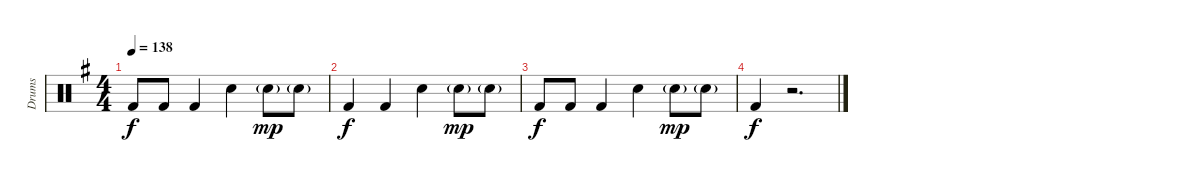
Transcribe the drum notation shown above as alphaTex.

\track ("Drums" "Drums") {instrument percussion}
\staff {score}
\articulation defaults
\ts (4 4)
\tempo 138
\clef neutral
\ks g "Kick (hit) 2".8{dy f} "Kick (hit) 2".8 "Kick (hit) 2".4 "Snare (hit) 2".4 "Snare (hit) 2"{g}.8{dy mp} "Snare (hit) 2"{g}.8
|
"Kick (hit) 2".4{dy f} "Kick (hit) 2".4 "Snare (hit) 2".4 "Snare (hit) 2"{g}.8{dy mp} "Snare (hit) 2"{g}.8 |
"Kick (hit) 2".8{dy f} "Kick (hit) 2".8 "Kick (hit) 2".4 "Snare (hit) 2".4 "Snare (hit) 2"{g}.8{dy mp} "Snare (hit) 2"{g}.8 |
"Kick (hit) 2".4{dy f} r.2{d}
